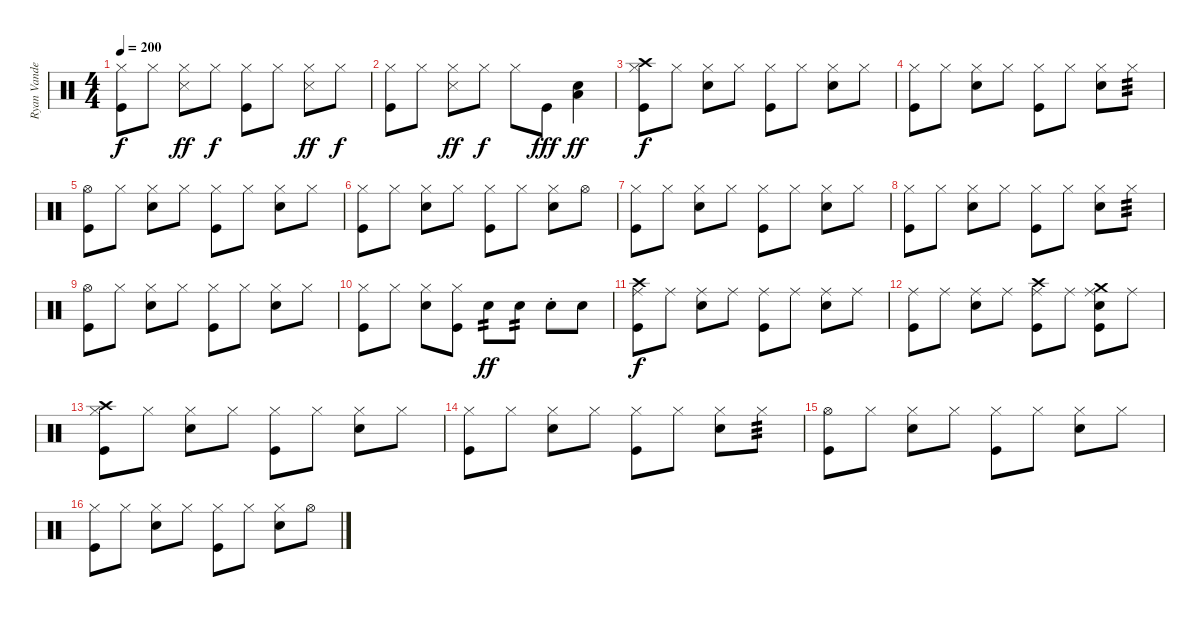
\track ("Ryan Vandebergh" "Ryan Vande") {instrument percussion}
\staff {score}
\articulation defaults
\ts (4 4)
\tempo 200
\clef neutral
\ks c
("Hi-Hat (closed)" "Kick (hit)").8{dy f} "Hi-Hat (closed)".8 ("Hi-Hat (closed)" "Snare (side stick) 3").8{dy ff} "Hi-Hat (closed)".8{dy f} ("Hi-Hat (closed)" "Kick (hit)").8 "Hi-Hat (closed)".8 ("Hi-Hat (closed)" "Snare (side stick) 3").8{dy ff} "Hi-Hat (closed)".8{dy f} |
("Hi-Hat (closed)" "Kick (hit)").8 "Hi-Hat (closed)".8 ("Hi-Hat (closed)" "Snare (side stick) 3").8{dy ff} "Hi-Hat (closed)".8{dy f} "Hi-Hat (closed)".8 "Kick (hit)".8{dy fff} ("Electric Snare (hit)" "Low Floor Tom (hit)").4{dy ff} |
("Crash high (hit)" "Hi-Hat (closed)" "Kick (hit)").8{dy f} "Hi-Hat (closed)".8 ("Hi-Hat (closed)" "Electric Snare (hit)").8 "Hi-Hat (closed)".8 ("Hi-Hat (closed)" "Kick (hit)").8 "Hi-Hat (closed)".8 ("Hi-Hat (closed)" "Electric Snare (hit)").8 "Hi-Hat (closed)".8 |
("Hi-Hat (closed)" "Kick (hit)").8 "Hi-Hat (closed)".8 ("Hi-Hat (closed)" "Electric Snare (hit)").8 "Hi-Hat (closed)".8 ("Hi-Hat (closed)" "Kick (hit)").8 "Hi-Hat (closed)".8 ("Hi-Hat (closed)" "Electric Snare (hit)").8 "Hi-Hat (closed)".8{tp 3} |
("Hi-Hat (open)" "Kick (hit)").8 "Hi-Hat (closed)".8 ("Hi-Hat (closed)" "Electric Snare (hit)").8 "Hi-Hat (closed)".8 ("Hi-Hat (closed)" "Kick (hit)").8 "Hi-Hat (closed)".8 ("Hi-Hat (closed)" "Electric Snare (hit)").8 "Hi-Hat (closed)".8 |
("Hi-Hat (closed)" "Kick (hit)").8 "Hi-Hat (closed)".8 ("Hi-Hat (closed)" "Electric Snare (hit)").8 "Hi-Hat (closed)".8 ("Hi-Hat (closed)" "Kick (hit)").8 "Hi-Hat (closed)".8 ("Hi-Hat (closed)" "Electric Snare (hit)").8 "Hi-Hat (open)".8 |
("Hi-Hat (closed)" "Kick (hit)").8 "Hi-Hat (closed)".8 ("Hi-Hat (closed)" "Electric Snare (hit)").8 "Hi-Hat (closed)".8 ("Hi-Hat (closed)" "Kick (hit)").8 "Hi-Hat (closed)".8 ("Hi-Hat (closed)" "Electric Snare (hit)").8 "Hi-Hat (closed)".8 |
("Hi-Hat (closed)" "Kick (hit)").8 "Hi-Hat (closed)".8 ("Hi-Hat (closed)" "Electric Snare (hit)").8 "Hi-Hat (closed)".8 ("Hi-Hat (closed)" "Kick (hit)").8 "Hi-Hat (closed)".8 ("Hi-Hat (closed)" "Electric Snare (hit)").8 "Hi-Hat (closed)".8{tp 3} |
("Hi-Hat (open)" "Kick (hit)").8 "Hi-Hat (closed)".8 ("Hi-Hat (closed)" "Electric Snare (hit)").8 "Hi-Hat (closed)".8 ("Hi-Hat (closed)" "Kick (hit)").8 "Hi-Hat (closed)".8 ("Hi-Hat (closed)" "Electric Snare (hit)").8 "Hi-Hat (closed)".8 |
("Hi-Hat (closed)" "Kick (hit)").8 "Hi-Hat (closed)".8 ("Hi-Hat (closed)" "Electric Snare (hit)").8 ("Hi-Hat (closed)" "Kick (hit)").8 "Electric Snare (hit)".8{tp 2 dy ff} "Electric Snare (hit)".8{tp 2} "Electric Snare (hit)"{st}.8 "Electric Snare (hit)".8 |
("Crash high (hit)" "Ride (middle)" "Kick (hit)").8{dy f} "Ride (middle)".8 ("Ride (middle)" "Electric Snare (hit)").8 "Ride (middle)".8 ("Ride (middle)" "Kick (hit)").8 "Ride (middle)".8 ("Ride (middle)" "Electric Snare (hit)").8 "Ride (middle)".8 |
("Ride (middle)" "Kick (hit)").8 "Ride (middle)".8 ("Ride (middle)" "Electric Snare (hit)").8 "Ride (middle)".8 ("Crash high (hit)" "Ride (middle)" "Kick (hit)").8 "Ride (middle)".8 ("Crash medium (hit)" "Ride (middle)" "Electric Snare (hit)" "Kick (hit)").8 "Ride (middle)".8 |
("Crash high (hit)" "Hi-Hat (closed)" "Kick (hit)").8 "Hi-Hat (closed)".8 ("Hi-Hat (closed)" "Electric Snare (hit)").8 "Hi-Hat (closed)".8 ("Hi-Hat (closed)" "Kick (hit)").8 "Hi-Hat (closed)".8 ("Hi-Hat (closed)" "Electric Snare (hit)").8 "Hi-Hat (closed)".8 |
("Hi-Hat (closed)" "Kick (hit)").8 "Hi-Hat (closed)".8 ("Hi-Hat (closed)" "Electric Snare (hit)").8 "Hi-Hat (closed)".8 ("Hi-Hat (closed)" "Kick (hit)").8 "Hi-Hat (closed)".8 ("Hi-Hat (closed)" "Electric Snare (hit)").8 "Hi-Hat (closed)".8{tp 3} |
("Hi-Hat (open)" "Kick (hit)").8 "Hi-Hat (closed)".8 ("Hi-Hat (closed)" "Electric Snare (hit)").8 "Hi-Hat (closed)".8 ("Hi-Hat (closed)" "Kick (hit)").8 "Hi-Hat (closed)".8 ("Hi-Hat (closed)" "Electric Snare (hit)").8 "Hi-Hat (closed)".8 |
("Hi-Hat (closed)" "Kick (hit)").8 "Hi-Hat (closed)".8 ("Hi-Hat (closed)" "Electric Snare (hit)").8 "Hi-Hat (closed)".8 ("Hi-Hat (closed)" "Kick (hit)").8 "Hi-Hat (closed)".8 ("Hi-Hat (closed)" "Electric Snare (hit)").8 "Hi-Hat (open)".8
